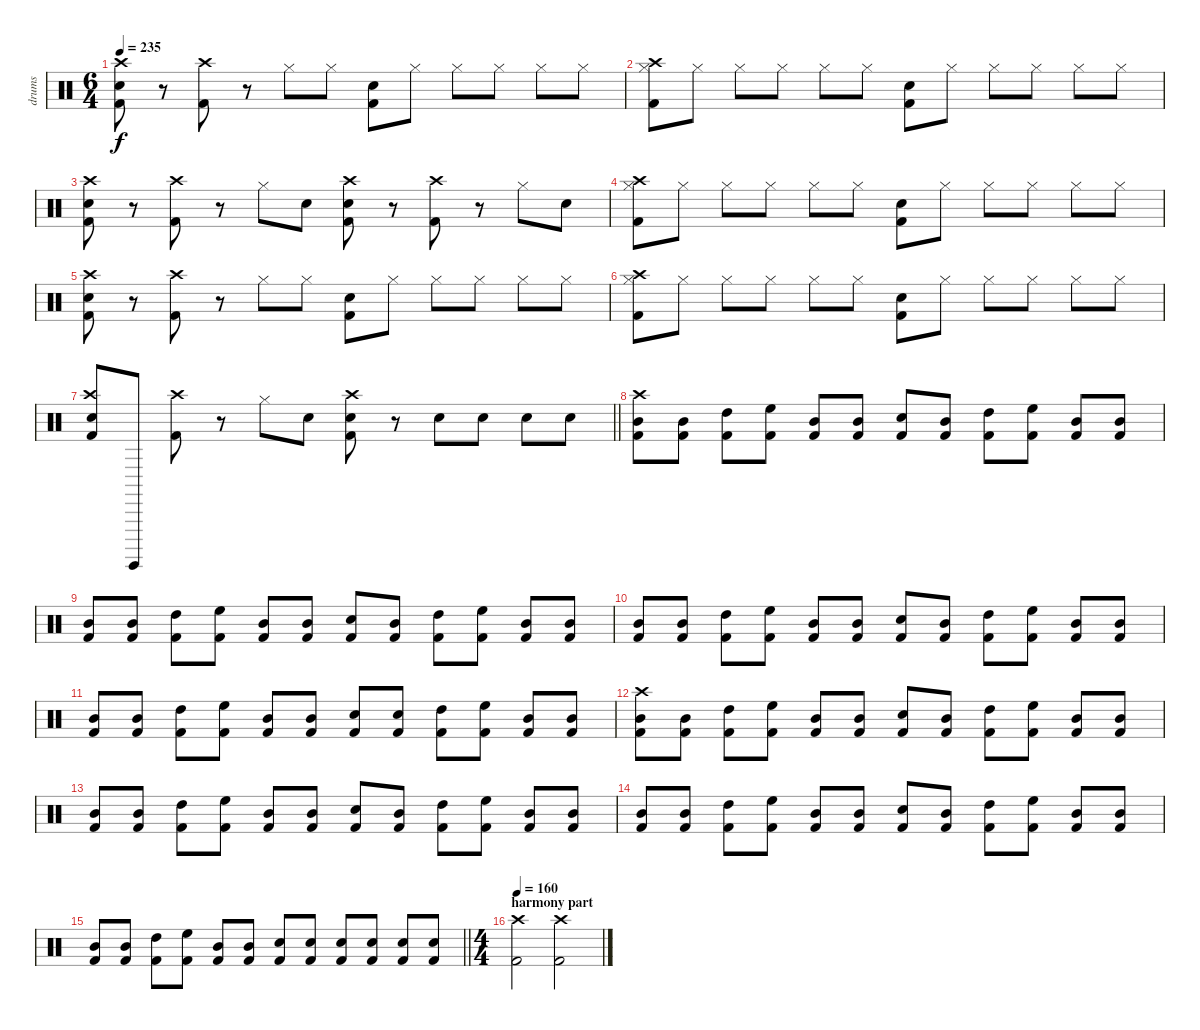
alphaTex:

\track ("drums" "drums") {instrument percussion}
\staff {score}
\articulation defaults
\ts (6 4)
\tempo 235
\clef neutral
\ks c
("Crash high (hit)" "Snare (hit) 2" "Kick (hit) 2").8{dy f} r.8 ("Crash high (hit)" "Kick (hit) 2").8 r.8 "Hi-Hat (closed)".8 "Hi-Hat (closed)".8 ("Snare (hit) 2" "Kick (hit) 2").8 "Hi-Hat (closed)".8 "Hi-Hat (closed)".8 "Hi-Hat (closed)".8 "Hi-Hat (closed)".8 "Hi-Hat (closed)".8 |
("Crash high (hit)" "Hi-Hat (closed)" "Kick (hit) 2").8 "Hi-Hat (closed)".8 "Hi-Hat (closed)".8 "Hi-Hat (closed)".8 "Hi-Hat (closed)".8 "Hi-Hat (closed)".8 ("Snare (hit) 2" "Kick (hit) 2").8 "Hi-Hat (closed)".8 "Hi-Hat (closed)".8 "Hi-Hat (closed)".8 "Hi-Hat (closed)".8 "Hi-Hat (closed)".8 |
("Crash high (hit)" "Snare (hit) 2" "Kick (hit) 2").8 r.8 ("Crash high (hit)" "Kick (hit) 2").8 r.8 "Hi-Hat (closed)".8 "Snare (hit) 2".8 ("Crash high (hit)" "Snare (hit) 2" "Kick (hit) 2").8 r.8 ("Crash high (hit)" "Kick (hit) 2").8 r.8 "Hi-Hat (closed)".8 "Snare (hit) 2".8 |
("Crash high (hit)" "Hi-Hat (closed)" "Kick (hit) 2").8 "Hi-Hat (closed)".8 "Hi-Hat (closed)".8 "Hi-Hat (closed)".8 "Hi-Hat (closed)".8 "Hi-Hat (closed)".8 ("Snare (hit) 2" "Kick (hit) 2").8 "Hi-Hat (closed)".8 "Hi-Hat (closed)".8 "Hi-Hat (closed)".8 "Hi-Hat (closed)".8 "Hi-Hat (closed)".8 |
("Crash high (hit)" "Snare (hit) 2" "Kick (hit) 2").8 r.8 ("Crash high (hit)" "Kick (hit) 2").8 r.8 "Hi-Hat (closed)".8 "Hi-Hat (closed)".8 ("Snare (hit) 2" "Kick (hit) 2").8 "Hi-Hat (closed)".8 "Hi-Hat (closed)".8 "Hi-Hat (closed)".8 "Hi-Hat (closed)".8 "Hi-Hat (closed)".8 |
("Crash high (hit)" "Hi-Hat (closed)" "Kick (hit) 2").8 "Hi-Hat (closed)".8 "Hi-Hat (closed)".8 "Hi-Hat (closed)".8 "Hi-Hat (closed)".8 "Hi-Hat (closed)".8 ("Snare (hit) 2" "Kick (hit) 2").8 "Hi-Hat (closed)".8 "Hi-Hat (closed)".8 "Hi-Hat (closed)".8 "Hi-Hat (closed)".8 "Hi-Hat (closed)".8 |
\barLineRight lightlight
("Crash high (hit)" "Snare (hit) 2" "Kick (hit) 2").8 "Surdo (hit)".8 ("Crash high (hit)" "Kick (hit) 2").8 r.8 "Hi-Hat (closed)".8 "Snare (hit) 2".8 ("Crash high (hit)" "Snare (hit) 2" "Kick (hit) 2").8 r.8 "Snare (hit) 2".8 "Snare (hit) 2".8 "Snare (hit) 2".8 "Snare (hit) 2".8 |
("Crash high (hit)" "Mid Tom (hit)" "Kick (hit) 2").8 ("Mid Tom (hit)" "Kick (hit) 2").8 ("High Tom (hit)" "Kick (hit) 2").8 ("High Floor Tom (hit)" "Kick (hit) 2").8 ("Mid Tom (hit)" "Kick (hit) 2").8 ("Mid Tom (hit)" "Kick (hit) 2").8 ("Snare (hit) 2" "Kick (hit) 2").8 ("Mid Tom (hit)" "Kick (hit) 2").8 ("High Tom (hit)" "Kick (hit) 2").8 ("High Floor Tom (hit)" "Kick (hit) 2").8 ("Mid Tom (hit)" "Kick (hit) 2").8 ("Mid Tom (hit)" "Kick (hit) 2").8 |
("Mid Tom (hit)" "Kick (hit) 2").8 ("Mid Tom (hit)" "Kick (hit) 2").8 ("High Tom (hit)" "Kick (hit) 2").8 ("High Floor Tom (hit)" "Kick (hit) 2").8 ("Mid Tom (hit)" "Kick (hit) 2").8 ("Mid Tom (hit)" "Kick (hit) 2").8 ("Snare (hit) 2" "Kick (hit) 2").8 ("Mid Tom (hit)" "Kick (hit) 2").8 ("High Tom (hit)" "Kick (hit) 2").8 ("High Floor Tom (hit)" "Kick (hit) 2").8 ("Mid Tom (hit)" "Kick (hit) 2").8 ("Mid Tom (hit)" "Kick (hit) 2").8 |
("Mid Tom (hit)" "Kick (hit) 2").8 ("Mid Tom (hit)" "Kick (hit) 2").8 ("High Tom (hit)" "Kick (hit) 2").8 ("High Floor Tom (hit)" "Kick (hit) 2").8 ("Mid Tom (hit)" "Kick (hit) 2").8 ("Mid Tom (hit)" "Kick (hit) 2").8 ("Snare (hit) 2" "Kick (hit) 2").8 ("Mid Tom (hit)" "Kick (hit) 2").8 ("High Tom (hit)" "Kick (hit) 2").8 ("High Floor Tom (hit)" "Kick (hit) 2").8 ("Mid Tom (hit)" "Kick (hit) 2").8 ("Mid Tom (hit)" "Kick (hit) 2").8 |
("Mid Tom (hit)" "Kick (hit) 2").8 ("Mid Tom (hit)" "Kick (hit) 2").8 ("High Tom (hit)" "Kick (hit) 2").8 ("High Floor Tom (hit)" "Kick (hit) 2").8 ("Mid Tom (hit)" "Kick (hit) 2").8 ("Mid Tom (hit)" "Kick (hit) 2").8 ("Snare (hit) 2" "Kick (hit) 2").8 ("Snare (hit) 2" "Kick (hit) 2").8 ("High Tom (hit)" "Kick (hit) 2").8 ("High Floor Tom (hit)" "Kick (hit) 2").8 ("Mid Tom (hit)" "Kick (hit) 2").8 ("Mid Tom (hit)" "Kick (hit) 2").8 |
("Crash high (hit)" "Mid Tom (hit)" "Kick (hit) 2").8 ("Mid Tom (hit)" "Kick (hit) 2").8 ("High Tom (hit)" "Kick (hit) 2").8 ("High Floor Tom (hit)" "Kick (hit) 2").8 ("Mid Tom (hit)" "Kick (hit) 2").8 ("Mid Tom (hit)" "Kick (hit) 2").8 ("Snare (hit) 2" "Kick (hit) 2").8 ("Mid Tom (hit)" "Kick (hit) 2").8 ("High Tom (hit)" "Kick (hit) 2").8 ("High Floor Tom (hit)" "Kick (hit) 2").8 ("Mid Tom (hit)" "Kick (hit) 2").8 ("Mid Tom (hit)" "Kick (hit) 2").8 |
("Mid Tom (hit)" "Kick (hit) 2").8 ("Mid Tom (hit)" "Kick (hit) 2").8 ("High Tom (hit)" "Kick (hit) 2").8 ("High Floor Tom (hit)" "Kick (hit) 2").8 ("Mid Tom (hit)" "Kick (hit) 2").8 ("Mid Tom (hit)" "Kick (hit) 2").8 ("Snare (hit) 2" "Kick (hit) 2").8 ("Mid Tom (hit)" "Kick (hit) 2").8 ("High Tom (hit)" "Kick (hit) 2").8 ("High Floor Tom (hit)" "Kick (hit) 2").8 ("Mid Tom (hit)" "Kick (hit) 2").8 ("Mid Tom (hit)" "Kick (hit) 2").8 |
("Mid Tom (hit)" "Kick (hit) 2").8 ("Mid Tom (hit)" "Kick (hit) 2").8 ("High Tom (hit)" "Kick (hit) 2").8 ("High Floor Tom (hit)" "Kick (hit) 2").8 ("Mid Tom (hit)" "Kick (hit) 2").8 ("Mid Tom (hit)" "Kick (hit) 2").8 ("Snare (hit) 2" "Kick (hit) 2").8 ("Mid Tom (hit)" "Kick (hit) 2").8 ("High Tom (hit)" "Kick (hit) 2").8 ("High Floor Tom (hit)" "Kick (hit) 2").8 ("Mid Tom (hit)" "Kick (hit) 2").8 ("Mid Tom (hit)" "Kick (hit) 2").8 |
\barLineRight lightlight
("Mid Tom (hit)" "Kick (hit) 2").8 ("Mid Tom (hit)" "Kick (hit) 2").8 ("High Tom (hit)" "Kick (hit) 2").8 ("High Floor Tom (hit)" "Kick (hit) 2").8 ("Mid Tom (hit)" "Kick (hit) 2").8 ("Mid Tom (hit)" "Kick (hit) 2").8 ("Snare (hit) 2" "Kick (hit) 2").8 ("Snare (hit) 2" "Kick (hit) 2").8 ("Snare (hit) 2" "Kick (hit) 2").8 ("Snare (hit) 2" "Kick (hit) 2").8 ("Snare (hit) 2" "Kick (hit) 2").8 ("Snare (hit) 2" "Kick (hit) 2").8 |
\ts (4 4)
\section ("" "harmony part")
\tempo 160
("Crash high (hit)" "Kick (hit) 2").2 ("Crash high (hit)" "Kick (hit) 2").2
